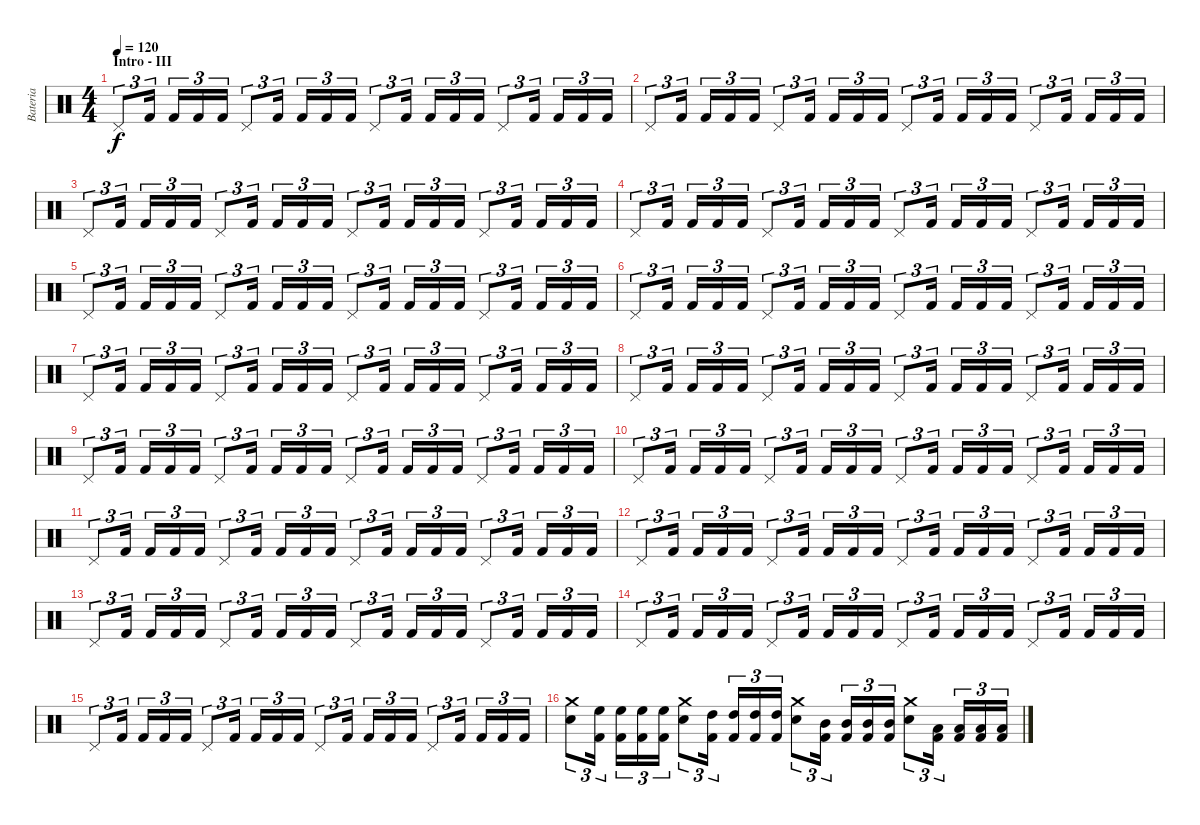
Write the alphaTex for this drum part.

\track ("Bateria" "Bateria") {instrument percussion}
\staff {score}
\articulation defaults
\ts (4 4)
\section ("" "Intro - III")
\tempo 120
\clef neutral
\ks c "Pedal Hi-Hat (hit)".8{tu (3 2) dy f} "Kick (hit) 2".16{tu (3 2)} "Kick (hit) 2".16{tu (3 2)} "Kick (hit) 2".16{tu (3 2)} "Kick (hit) 2".16{tu (3 2)} "Pedal Hi-Hat (hit)".8{tu (3 2)} "Kick (hit) 2".16{tu (3 2)} "Kick (hit) 2".16{tu (3 2)} "Kick (hit) 2".16{tu (3 2)} "Kick (hit) 2".16{tu (3 2)} "Pedal Hi-Hat (hit)".8{tu (3 2)} "Kick (hit) 2".16{tu (3 2)} "Kick (hit) 2".16{tu (3 2)} "Kick (hit) 2".16{tu (3 2)} "Kick (hit) 2".16{tu (3 2)} "Pedal Hi-Hat (hit)".8{tu (3 2)} "Kick (hit) 2".16{tu (3 2)} "Kick (hit) 2".16{tu (3 2)} "Kick (hit) 2".16{tu (3 2)} "Kick (hit) 2".16{tu (3 2)}
|
"Pedal Hi-Hat (hit)".8{tu (3 2)} "Kick (hit) 2".16{tu (3 2)} "Kick (hit) 2".16{tu (3 2)} "Kick (hit) 2".16{tu (3 2)} "Kick (hit) 2".16{tu (3 2)} "Pedal Hi-Hat (hit)".8{tu (3 2)} "Kick (hit) 2".16{tu (3 2)} "Kick (hit) 2".16{tu (3 2)} "Kick (hit) 2".16{tu (3 2)} "Kick (hit) 2".16{tu (3 2)} "Pedal Hi-Hat (hit)".8{tu (3 2)} "Kick (hit) 2".16{tu (3 2)} "Kick (hit) 2".16{tu (3 2)} "Kick (hit) 2".16{tu (3 2)} "Kick (hit) 2".16{tu (3 2)} "Pedal Hi-Hat (hit)".8{tu (3 2)} "Kick (hit) 2".16{tu (3 2)} "Kick (hit) 2".16{tu (3 2)} "Kick (hit) 2".16{tu (3 2)} "Kick (hit) 2".16{tu (3 2)} |
"Pedal Hi-Hat (hit)".8{tu (3 2)} "Kick (hit) 2".16{tu (3 2)} "Kick (hit) 2".16{tu (3 2)} "Kick (hit) 2".16{tu (3 2)} "Kick (hit) 2".16{tu (3 2)} "Pedal Hi-Hat (hit)".8{tu (3 2)} "Kick (hit) 2".16{tu (3 2)} "Kick (hit) 2".16{tu (3 2)} "Kick (hit) 2".16{tu (3 2)} "Kick (hit) 2".16{tu (3 2)} "Pedal Hi-Hat (hit)".8{tu (3 2)} "Kick (hit) 2".16{tu (3 2)} "Kick (hit) 2".16{tu (3 2)} "Kick (hit) 2".16{tu (3 2)} "Kick (hit) 2".16{tu (3 2)} "Pedal Hi-Hat (hit)".8{tu (3 2)} "Kick (hit) 2".16{tu (3 2)} "Kick (hit) 2".16{tu (3 2)} "Kick (hit) 2".16{tu (3 2)} "Kick (hit) 2".16{tu (3 2)} |
"Pedal Hi-Hat (hit)".8{tu (3 2)} "Kick (hit) 2".16{tu (3 2)} "Kick (hit) 2".16{tu (3 2)} "Kick (hit) 2".16{tu (3 2)} "Kick (hit) 2".16{tu (3 2)} "Pedal Hi-Hat (hit)".8{tu (3 2)} "Kick (hit) 2".16{tu (3 2)} "Kick (hit) 2".16{tu (3 2)} "Kick (hit) 2".16{tu (3 2)} "Kick (hit) 2".16{tu (3 2)} "Pedal Hi-Hat (hit)".8{tu (3 2)} "Kick (hit) 2".16{tu (3 2)} "Kick (hit) 2".16{tu (3 2)} "Kick (hit) 2".16{tu (3 2)} "Kick (hit) 2".16{tu (3 2)} "Pedal Hi-Hat (hit)".8{tu (3 2)} "Kick (hit) 2".16{tu (3 2)} "Kick (hit) 2".16{tu (3 2)} "Kick (hit) 2".16{tu (3 2)} "Kick (hit) 2".16{tu (3 2)} |
"Pedal Hi-Hat (hit)".8{tu (3 2)} "Kick (hit) 2".16{tu (3 2)} "Kick (hit) 2".16{tu (3 2)} "Kick (hit) 2".16{tu (3 2)} "Kick (hit) 2".16{tu (3 2)} "Pedal Hi-Hat (hit)".8{tu (3 2)} "Kick (hit) 2".16{tu (3 2)} "Kick (hit) 2".16{tu (3 2)} "Kick (hit) 2".16{tu (3 2)} "Kick (hit) 2".16{tu (3 2)} "Pedal Hi-Hat (hit)".8{tu (3 2)} "Kick (hit) 2".16{tu (3 2)} "Kick (hit) 2".16{tu (3 2)} "Kick (hit) 2".16{tu (3 2)} "Kick (hit) 2".16{tu (3 2)} "Pedal Hi-Hat (hit)".8{tu (3 2)} "Kick (hit) 2".16{tu (3 2)} "Kick (hit) 2".16{tu (3 2)} "Kick (hit) 2".16{tu (3 2)} "Kick (hit) 2".16{tu (3 2)} |
"Pedal Hi-Hat (hit)".8{tu (3 2)} "Kick (hit) 2".16{tu (3 2)} "Kick (hit) 2".16{tu (3 2)} "Kick (hit) 2".16{tu (3 2)} "Kick (hit) 2".16{tu (3 2)} "Pedal Hi-Hat (hit)".8{tu (3 2)} "Kick (hit) 2".16{tu (3 2)} "Kick (hit) 2".16{tu (3 2)} "Kick (hit) 2".16{tu (3 2)} "Kick (hit) 2".16{tu (3 2)} "Pedal Hi-Hat (hit)".8{tu (3 2)} "Kick (hit) 2".16{tu (3 2)} "Kick (hit) 2".16{tu (3 2)} "Kick (hit) 2".16{tu (3 2)} "Kick (hit) 2".16{tu (3 2)} "Pedal Hi-Hat (hit)".8{tu (3 2)} "Kick (hit) 2".16{tu (3 2)} "Kick (hit) 2".16{tu (3 2)} "Kick (hit) 2".16{tu (3 2)} "Kick (hit) 2".16{tu (3 2)} |
"Pedal Hi-Hat (hit)".8{tu (3 2)} "Kick (hit) 2".16{tu (3 2)} "Kick (hit) 2".16{tu (3 2)} "Kick (hit) 2".16{tu (3 2)} "Kick (hit) 2".16{tu (3 2)} "Pedal Hi-Hat (hit)".8{tu (3 2)} "Kick (hit) 2".16{tu (3 2)} "Kick (hit) 2".16{tu (3 2)} "Kick (hit) 2".16{tu (3 2)} "Kick (hit) 2".16{tu (3 2)} "Pedal Hi-Hat (hit)".8{tu (3 2)} "Kick (hit) 2".16{tu (3 2)} "Kick (hit) 2".16{tu (3 2)} "Kick (hit) 2".16{tu (3 2)} "Kick (hit) 2".16{tu (3 2)} "Pedal Hi-Hat (hit)".8{tu (3 2)} "Kick (hit) 2".16{tu (3 2)} "Kick (hit) 2".16{tu (3 2)} "Kick (hit) 2".16{tu (3 2)} "Kick (hit) 2".16{tu (3 2)} |
"Pedal Hi-Hat (hit)".8{tu (3 2)} "Kick (hit) 2".16{tu (3 2)} "Kick (hit) 2".16{tu (3 2)} "Kick (hit) 2".16{tu (3 2)} "Kick (hit) 2".16{tu (3 2)} "Pedal Hi-Hat (hit)".8{tu (3 2)} "Kick (hit) 2".16{tu (3 2)} "Kick (hit) 2".16{tu (3 2)} "Kick (hit) 2".16{tu (3 2)} "Kick (hit) 2".16{tu (3 2)} "Pedal Hi-Hat (hit)".8{tu (3 2)} "Kick (hit) 2".16{tu (3 2)} "Kick (hit) 2".16{tu (3 2)} "Kick (hit) 2".16{tu (3 2)} "Kick (hit) 2".16{tu (3 2)} "Pedal Hi-Hat (hit)".8{tu (3 2)} "Kick (hit) 2".16{tu (3 2)} "Kick (hit) 2".16{tu (3 2)} "Kick (hit) 2".16{tu (3 2)} "Kick (hit) 2".16{tu (3 2)} |
"Pedal Hi-Hat (hit)".8{tu (3 2)} "Kick (hit) 2".16{tu (3 2)} "Kick (hit) 2".16{tu (3 2)} "Kick (hit) 2".16{tu (3 2)} "Kick (hit) 2".16{tu (3 2)} "Pedal Hi-Hat (hit)".8{tu (3 2)} "Kick (hit) 2".16{tu (3 2)} "Kick (hit) 2".16{tu (3 2)} "Kick (hit) 2".16{tu (3 2)} "Kick (hit) 2".16{tu (3 2)} "Pedal Hi-Hat (hit)".8{tu (3 2)} "Kick (hit) 2".16{tu (3 2)} "Kick (hit) 2".16{tu (3 2)} "Kick (hit) 2".16{tu (3 2)} "Kick (hit) 2".16{tu (3 2)} "Pedal Hi-Hat (hit)".8{tu (3 2)} "Kick (hit) 2".16{tu (3 2)} "Kick (hit) 2".16{tu (3 2)} "Kick (hit) 2".16{tu (3 2)} "Kick (hit) 2".16{tu (3 2)} |
"Pedal Hi-Hat (hit)".8{tu (3 2)} "Kick (hit) 2".16{tu (3 2)} "Kick (hit) 2".16{tu (3 2)} "Kick (hit) 2".16{tu (3 2)} "Kick (hit) 2".16{tu (3 2)} "Pedal Hi-Hat (hit)".8{tu (3 2)} "Kick (hit) 2".16{tu (3 2)} "Kick (hit) 2".16{tu (3 2)} "Kick (hit) 2".16{tu (3 2)} "Kick (hit) 2".16{tu (3 2)} "Pedal Hi-Hat (hit)".8{tu (3 2)} "Kick (hit) 2".16{tu (3 2)} "Kick (hit) 2".16{tu (3 2)} "Kick (hit) 2".16{tu (3 2)} "Kick (hit) 2".16{tu (3 2)} "Pedal Hi-Hat (hit)".8{tu (3 2)} "Kick (hit) 2".16{tu (3 2)} "Kick (hit) 2".16{tu (3 2)} "Kick (hit) 2".16{tu (3 2)} "Kick (hit) 2".16{tu (3 2)} |
"Pedal Hi-Hat (hit)".8{tu (3 2)} "Kick (hit) 2".16{tu (3 2)} "Kick (hit) 2".16{tu (3 2)} "Kick (hit) 2".16{tu (3 2)} "Kick (hit) 2".16{tu (3 2)} "Pedal Hi-Hat (hit)".8{tu (3 2)} "Kick (hit) 2".16{tu (3 2)} "Kick (hit) 2".16{tu (3 2)} "Kick (hit) 2".16{tu (3 2)} "Kick (hit) 2".16{tu (3 2)} "Pedal Hi-Hat (hit)".8{tu (3 2)} "Kick (hit) 2".16{tu (3 2)} "Kick (hit) 2".16{tu (3 2)} "Kick (hit) 2".16{tu (3 2)} "Kick (hit) 2".16{tu (3 2)} "Pedal Hi-Hat (hit)".8{tu (3 2)} "Kick (hit) 2".16{tu (3 2)} "Kick (hit) 2".16{tu (3 2)} "Kick (hit) 2".16{tu (3 2)} "Kick (hit) 2".16{tu (3 2)} |
"Pedal Hi-Hat (hit)".8{tu (3 2)} "Kick (hit) 2".16{tu (3 2)} "Kick (hit) 2".16{tu (3 2)} "Kick (hit) 2".16{tu (3 2)} "Kick (hit) 2".16{tu (3 2)} "Pedal Hi-Hat (hit)".8{tu (3 2)} "Kick (hit) 2".16{tu (3 2)} "Kick (hit) 2".16{tu (3 2)} "Kick (hit) 2".16{tu (3 2)} "Kick (hit) 2".16{tu (3 2)} "Pedal Hi-Hat (hit)".8{tu (3 2)} "Kick (hit) 2".16{tu (3 2)} "Kick (hit) 2".16{tu (3 2)} "Kick (hit) 2".16{tu (3 2)} "Kick (hit) 2".16{tu (3 2)} "Pedal Hi-Hat (hit)".8{tu (3 2)} "Kick (hit) 2".16{tu (3 2)} "Kick (hit) 2".16{tu (3 2)} "Kick (hit) 2".16{tu (3 2)} "Kick (hit) 2".16{tu (3 2)} |
"Pedal Hi-Hat (hit)".8{tu (3 2)} "Kick (hit) 2".16{tu (3 2)} "Kick (hit) 2".16{tu (3 2)} "Kick (hit) 2".16{tu (3 2)} "Kick (hit) 2".16{tu (3 2)} "Pedal Hi-Hat (hit)".8{tu (3 2)} "Kick (hit) 2".16{tu (3 2)} "Kick (hit) 2".16{tu (3 2)} "Kick (hit) 2".16{tu (3 2)} "Kick (hit) 2".16{tu (3 2)} "Pedal Hi-Hat (hit)".8{tu (3 2)} "Kick (hit) 2".16{tu (3 2)} "Kick (hit) 2".16{tu (3 2)} "Kick (hit) 2".16{tu (3 2)} "Kick (hit) 2".16{tu (3 2)} "Pedal Hi-Hat (hit)".8{tu (3 2)} "Kick (hit) 2".16{tu (3 2)} "Kick (hit) 2".16{tu (3 2)} "Kick (hit) 2".16{tu (3 2)} "Kick (hit) 2".16{tu (3 2)} |
"Pedal Hi-Hat (hit)".8{tu (3 2)} "Kick (hit) 2".16{tu (3 2)} "Kick (hit) 2".16{tu (3 2)} "Kick (hit) 2".16{tu (3 2)} "Kick (hit) 2".16{tu (3 2)} "Pedal Hi-Hat (hit)".8{tu (3 2)} "Kick (hit) 2".16{tu (3 2)} "Kick (hit) 2".16{tu (3 2)} "Kick (hit) 2".16{tu (3 2)} "Kick (hit) 2".16{tu (3 2)} "Pedal Hi-Hat (hit)".8{tu (3 2)} "Kick (hit) 2".16{tu (3 2)} "Kick (hit) 2".16{tu (3 2)} "Kick (hit) 2".16{tu (3 2)} "Kick (hit) 2".16{tu (3 2)} "Pedal Hi-Hat (hit)".8{tu (3 2)} "Kick (hit) 2".16{tu (3 2)} "Kick (hit) 2".16{tu (3 2)} "Kick (hit) 2".16{tu (3 2)} "Kick (hit) 2".16{tu (3 2)} |
"Pedal Hi-Hat (hit)".8{tu (3 2)} "Kick (hit) 2".16{tu (3 2)} "Kick (hit) 2".16{tu (3 2)} "Kick (hit) 2".16{tu (3 2)} "Kick (hit) 2".16{tu (3 2)} "Pedal Hi-Hat (hit)".8{tu (3 2)} "Kick (hit) 2".16{tu (3 2)} "Kick (hit) 2".16{tu (3 2)} "Kick (hit) 2".16{tu (3 2)} "Kick (hit) 2".16{tu (3 2)} "Pedal Hi-Hat (hit)".8{tu (3 2)} "Kick (hit) 2".16{tu (3 2)} "Kick (hit) 2".16{tu (3 2)} "Kick (hit) 2".16{tu (3 2)} "Kick (hit) 2".16{tu (3 2)} "Pedal Hi-Hat (hit)".8{tu (3 2)} "Kick (hit) 2".16{tu (3 2)} "Kick (hit) 2".16{tu (3 2)} "Kick (hit) 2".16{tu (3 2)} "Kick (hit) 2".16{tu (3 2)} |
("Crash medium (hit)" "Snare (hit) 2").8{tu (3 2)} ("High Floor Tom (hit)" "Kick (hit) 2").16{tu (3 2)} ("High Floor Tom (hit)" "Kick (hit) 2").16{tu (3 2)} ("High Floor Tom (hit)" "Kick (hit) 2").16{tu (3 2)} ("High Floor Tom (hit)" "Kick (hit) 2").16{tu (3 2)} ("Crash medium (hit)" "Snare (hit) 2").8{tu (3 2)} ("High Tom (hit)" "Kick (hit) 2").16{tu (3 2)} ("High Tom (hit)" "Kick (hit) 2").16{tu (3 2)} ("High Tom (hit)" "Kick (hit) 2").16{tu (3 2)} ("High Tom (hit)" "Kick (hit) 2").16{tu (3 2)} ("Crash medium (hit)" "Snare (hit) 2").8{tu (3 2)} ("Mid Tom (hit)" "Kick (hit) 2").16{tu (3 2)} ("Mid Tom (hit)" "Kick (hit) 2").16{tu (3 2)} ("Mid Tom (hit)" "Kick (hit) 2").16{tu (3 2)} ("Mid Tom (hit)" "Kick (hit) 2").16{tu (3 2)} ("Crash medium (hit)" "Snare (hit) 2").8{tu (3 2)} ("Low Tom (hit)" "Kick (hit) 2").16{tu (3 2)} ("Low Tom (hit)" "Kick (hit) 2").16{tu (3 2)} ("Low Tom (hit)" "Kick (hit) 2").16{tu (3 2)} ("Low Tom (hit)" "Kick (hit) 2").16{tu (3 2)}
